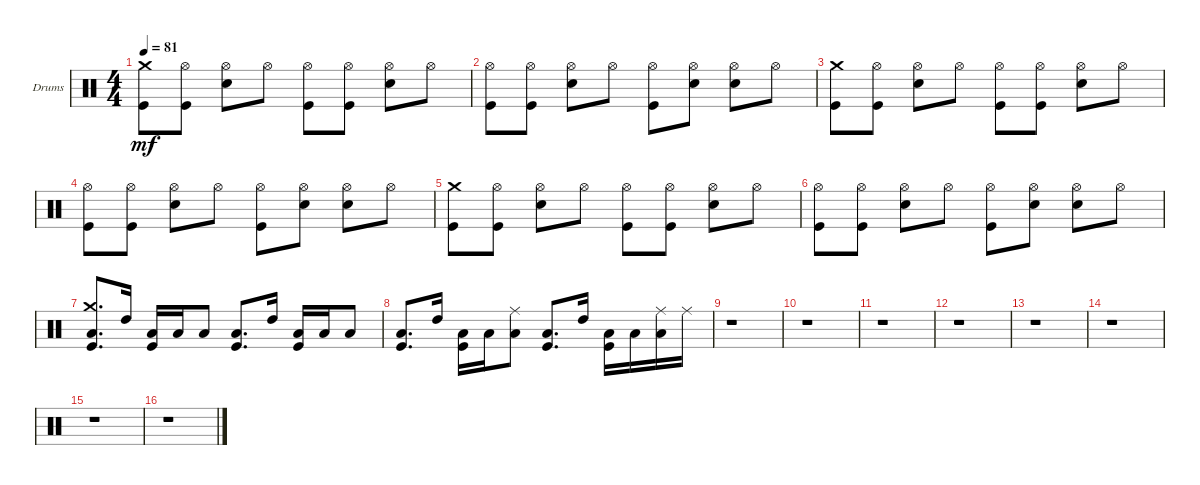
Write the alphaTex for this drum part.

\bracketExtendMode groupsimilarinstruments
\firstSystemTrackNameOrientation horizontal
\otherSystemsTrackNameOrientation horizontal
\track ("Drumkit" "Drums") {instrument percussion}
\staff {score}
\articulation defaults
\ts (4 4)
\tempo 81
\clef neutral
\ks c
("Kick (hit)" "Crash medium (hit)").8{dy mf} ("Kick (hit)" "Hi-Hat (open)").8 ("Snare (hit) 2" "Hi-Hat (open)").8 "Hi-Hat (open)".8 ("Kick (hit)" "Hi-Hat (open)").8 ("Kick (hit)" "Hi-Hat (open)").8 ("Snare (hit) 2" "Hi-Hat (open)").8 "Hi-Hat (open)".8 |
("Kick (hit)" "Hi-Hat (open)").8 ("Kick (hit)" "Hi-Hat (open)").8 ("Snare (hit) 2" "Hi-Hat (open)").8 "Hi-Hat (open)".8 ("Kick (hit)" "Hi-Hat (open)").8 ("Snare (hit) 2" "Hi-Hat (open)").8 ("Snare (hit) 2" "Hi-Hat (open)").8 "Hi-Hat (open)".8 |
("Kick (hit)" "Crash medium (hit)").8 ("Kick (hit)" "Hi-Hat (open)").8 ("Snare (hit) 2" "Hi-Hat (open)").8 "Hi-Hat (open)".8 ("Kick (hit)" "Hi-Hat (open)").8 ("Kick (hit)" "Hi-Hat (open)").8 ("Snare (hit) 2" "Hi-Hat (open)").8 "Hi-Hat (open)".8 |
("Kick (hit)" "Hi-Hat (open)").8 ("Kick (hit)" "Hi-Hat (open)").8 ("Snare (hit) 2" "Hi-Hat (open)").8 "Hi-Hat (open)".8 ("Kick (hit)" "Hi-Hat (open)").8 ("Snare (hit) 2" "Hi-Hat (open)").8 ("Snare (hit) 2" "Hi-Hat (open)").8 "Hi-Hat (open)".8 |
("Kick (hit)" "Crash medium (hit)").8 ("Kick (hit)" "Hi-Hat (open)").8 ("Snare (hit) 2" "Hi-Hat (open)").8 "Hi-Hat (open)".8 ("Kick (hit)" "Hi-Hat (open)").8 ("Kick (hit)" "Hi-Hat (open)").8 ("Snare (hit) 2" "Hi-Hat (open)").8 "Hi-Hat (open)".8 |
("Kick (hit)" "Hi-Hat (open)").8 ("Kick (hit)" "Hi-Hat (open)").8 ("Snare (hit) 2" "Hi-Hat (open)").8 "Hi-Hat (open)".8 ("Kick (hit)" "Hi-Hat (open)").8 ("Snare (hit) 2" "Hi-Hat (open)").8 ("Snare (hit) 2" "Hi-Hat (open)").8 "Hi-Hat (open)".8 |
("Kick (hit)" "Low Tom (hit)" "Crash medium (hit)").8{d} "High Tom (hit)".16 ("Kick (hit)" "Low Tom (hit)").16 "Low Tom (hit)".16 "Low Tom (hit)".8 ("Kick (hit)" "Low Tom (hit)").8{d} "High Tom (hit)".16 ("Kick (hit)" "Low Tom (hit)").16 "Low Tom (hit)".16 "Low Tom (hit)".8 |
("Kick (hit)" "Low Tom (hit)").8{d} "High Tom (hit)".16 ("Kick (hit)" "Low Tom (hit)").16 "Low Tom (hit)".16 ("Low Tom (hit)" "Ride (middle)").8 ("Kick (hit)" "Low Tom (hit)").8{d} "High Tom (hit)".16 ("Kick (hit)" "Low Tom (hit)").16 "Low Tom (hit)".16 ("Low Tom (hit)" "Ride (middle)").16 "Ride (middle)".16 |
r.1 |
r.1 |
r.1 |
r.1 |
r.1 |
r.1 |
r.1 |
r.1
